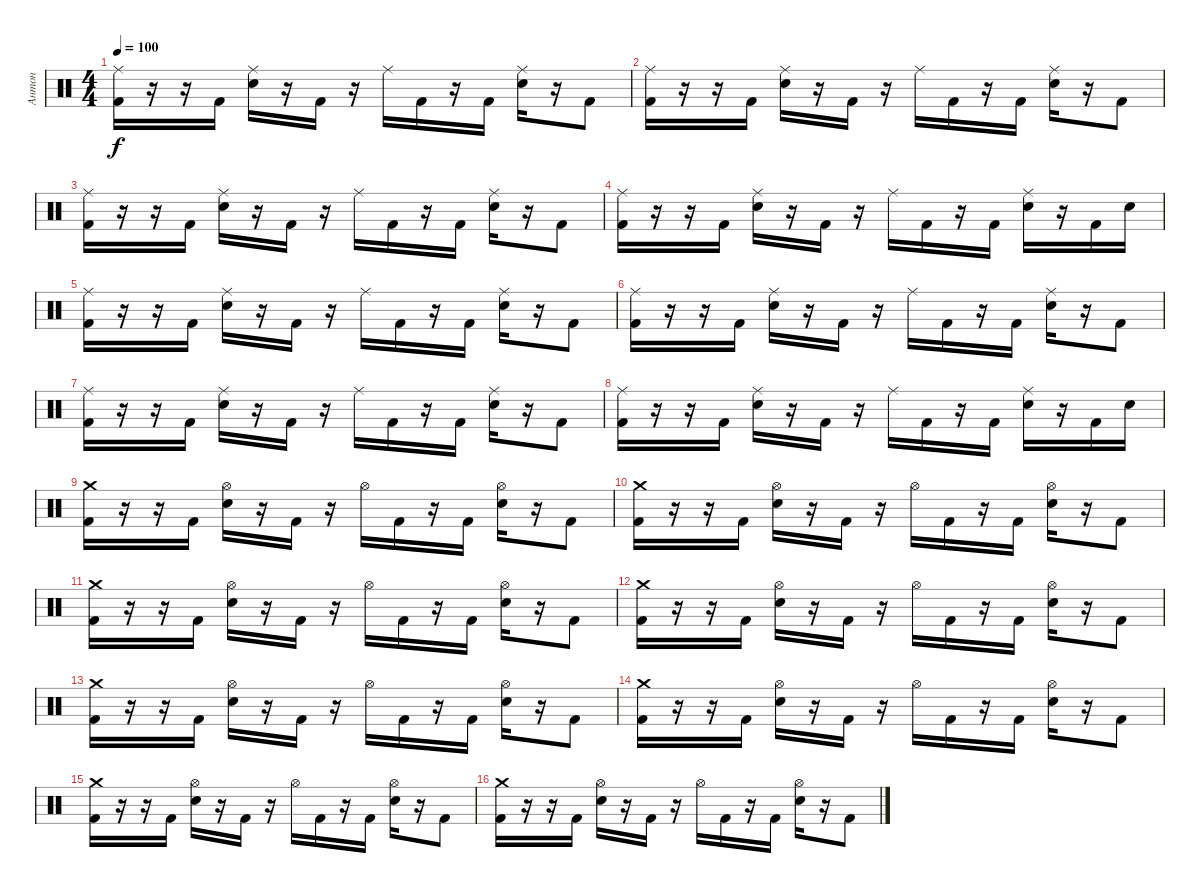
\track ("Антон" "Антон") {instrument percussion}
\staff {score}
\articulation defaults
\ts (4 4)
\tempo 100
\clef neutral
\ks c
("Ride (middle)" "Kick (hit) 2").16{dy f} r.16 r.16 "Kick (hit) 2".16 ("Ride (middle)" "Electric Snare (hit)").16 r.16 "Kick (hit) 2".16 r.16 "Ride (middle)".16 "Kick (hit) 2".16 r.16 "Kick (hit) 2".16 ("Ride (middle)" "Electric Snare (hit)").16 r.16 "Kick (hit) 2".8 |
("Ride (middle)" "Kick (hit) 2").16 r.16 r.16 "Kick (hit) 2".16 ("Ride (middle)" "Electric Snare (hit)").16 r.16 "Kick (hit) 2".16 r.16 "Ride (middle)".16 "Kick (hit) 2".16 r.16 "Kick (hit) 2".16 ("Ride (middle)" "Electric Snare (hit)").16 r.16 "Kick (hit) 2".8 |
("Ride (middle)" "Kick (hit) 2").16 r.16 r.16 "Kick (hit) 2".16 ("Ride (middle)" "Electric Snare (hit)").16 r.16 "Kick (hit) 2".16 r.16 "Ride (middle)".16 "Kick (hit) 2".16 r.16 "Kick (hit) 2".16 ("Ride (middle)" "Electric Snare (hit)").16 r.16 "Kick (hit) 2".8 |
("Ride (middle)" "Kick (hit) 2").16 r.16 r.16 "Kick (hit) 2".16 ("Ride (middle)" "Electric Snare (hit)").16 r.16 "Kick (hit) 2".16 r.16 "Ride (middle)".16 "Kick (hit) 2".16 r.16 "Kick (hit) 2".16 ("Ride (middle)" "Electric Snare (hit)").16 r.16 "Kick (hit) 2".16 "Electric Snare (hit)".16 |
("Ride (middle)" "Kick (hit) 2").16 r.16 r.16 "Kick (hit) 2".16 ("Ride (middle)" "Electric Snare (hit)").16 r.16 "Kick (hit) 2".16 r.16 "Ride (middle)".16 "Kick (hit) 2".16 r.16 "Kick (hit) 2".16 ("Ride (middle)" "Electric Snare (hit)").16 r.16 "Kick (hit) 2".8 |
("Ride (middle)" "Kick (hit) 2").16 r.16 r.16 "Kick (hit) 2".16 ("Ride (middle)" "Electric Snare (hit)").16 r.16 "Kick (hit) 2".16 r.16 "Ride (middle)".16 "Kick (hit) 2".16 r.16 "Kick (hit) 2".16 ("Ride (middle)" "Electric Snare (hit)").16 r.16 "Kick (hit) 2".8 |
("Ride (middle)" "Kick (hit) 2").16 r.16 r.16 "Kick (hit) 2".16 ("Ride (middle)" "Electric Snare (hit)").16 r.16 "Kick (hit) 2".16 r.16 "Ride (middle)".16 "Kick (hit) 2".16 r.16 "Kick (hit) 2".16 ("Ride (middle)" "Electric Snare (hit)").16 r.16 "Kick (hit) 2".8 |
("Ride (middle)" "Kick (hit) 2").16 r.16 r.16 "Kick (hit) 2".16 ("Ride (middle)" "Electric Snare (hit)").16 r.16 "Kick (hit) 2".16 r.16 "Ride (middle)".16 "Kick (hit) 2".16 r.16 "Kick (hit) 2".16 ("Ride (middle)" "Electric Snare (hit)").16 r.16 "Kick (hit) 2".16 "Electric Snare (hit)".16 |
("Crash medium (hit)" "Kick (hit) 2").16 r.16 r.16 "Kick (hit) 2".16 ("Hi-Hat (open)" "Electric Snare (hit)").16 r.16 "Kick (hit) 2".16 r.16 "Hi-Hat (open)".16 "Kick (hit) 2".16 r.16 "Kick (hit) 2".16 ("Hi-Hat (open)" "Electric Snare (hit)").16 r.16 "Kick (hit) 2".8 |
("Crash medium (hit)" "Kick (hit) 2").16 r.16 r.16 "Kick (hit) 2".16 ("Hi-Hat (open)" "Electric Snare (hit)").16 r.16 "Kick (hit) 2".16 r.16 "Hi-Hat (open)".16 "Kick (hit) 2".16 r.16 "Kick (hit) 2".16 ("Hi-Hat (open)" "Electric Snare (hit)").16 r.16 "Kick (hit) 2".8 |
("Crash medium (hit)" "Kick (hit) 2").16 r.16 r.16 "Kick (hit) 2".16 ("Hi-Hat (open)" "Electric Snare (hit)").16 r.16 "Kick (hit) 2".16 r.16 "Hi-Hat (open)".16 "Kick (hit) 2".16 r.16 "Kick (hit) 2".16 ("Hi-Hat (open)" "Electric Snare (hit)").16 r.16 "Kick (hit) 2".8 |
("Crash medium (hit)" "Kick (hit) 2").16 r.16 r.16 "Kick (hit) 2".16 ("Hi-Hat (open)" "Electric Snare (hit)").16 r.16 "Kick (hit) 2".16 r.16 "Hi-Hat (open)".16 "Kick (hit) 2".16 r.16 "Kick (hit) 2".16 ("Hi-Hat (open)" "Electric Snare (hit)").16 r.16 "Kick (hit) 2".8 |
("Crash medium (hit)" "Kick (hit) 2").16 r.16 r.16 "Kick (hit) 2".16 ("Hi-Hat (open)" "Electric Snare (hit)").16 r.16 "Kick (hit) 2".16 r.16 "Hi-Hat (open)".16 "Kick (hit) 2".16 r.16 "Kick (hit) 2".16 ("Hi-Hat (open)" "Electric Snare (hit)").16 r.16 "Kick (hit) 2".8 |
("Crash medium (hit)" "Kick (hit) 2").16 r.16 r.16 "Kick (hit) 2".16 ("Hi-Hat (open)" "Electric Snare (hit)").16 r.16 "Kick (hit) 2".16 r.16 "Hi-Hat (open)".16 "Kick (hit) 2".16 r.16 "Kick (hit) 2".16 ("Hi-Hat (open)" "Electric Snare (hit)").16 r.16 "Kick (hit) 2".8 |
("Crash medium (hit)" "Kick (hit) 2").16 r.16 r.16 "Kick (hit) 2".16 ("Hi-Hat (open)" "Electric Snare (hit)").16 r.16 "Kick (hit) 2".16 r.16 "Hi-Hat (open)".16 "Kick (hit) 2".16 r.16 "Kick (hit) 2".16 ("Hi-Hat (open)" "Electric Snare (hit)").16 r.16 "Kick (hit) 2".8 |
("Crash medium (hit)" "Kick (hit) 2").16 r.16 r.16 "Kick (hit) 2".16 ("Hi-Hat (open)" "Electric Snare (hit)").16 r.16 "Kick (hit) 2".16 r.16 "Hi-Hat (open)".16 "Kick (hit) 2".16 r.16 "Kick (hit) 2".16 ("Hi-Hat (open)" "Electric Snare (hit)").16 r.16 "Kick (hit) 2".8
